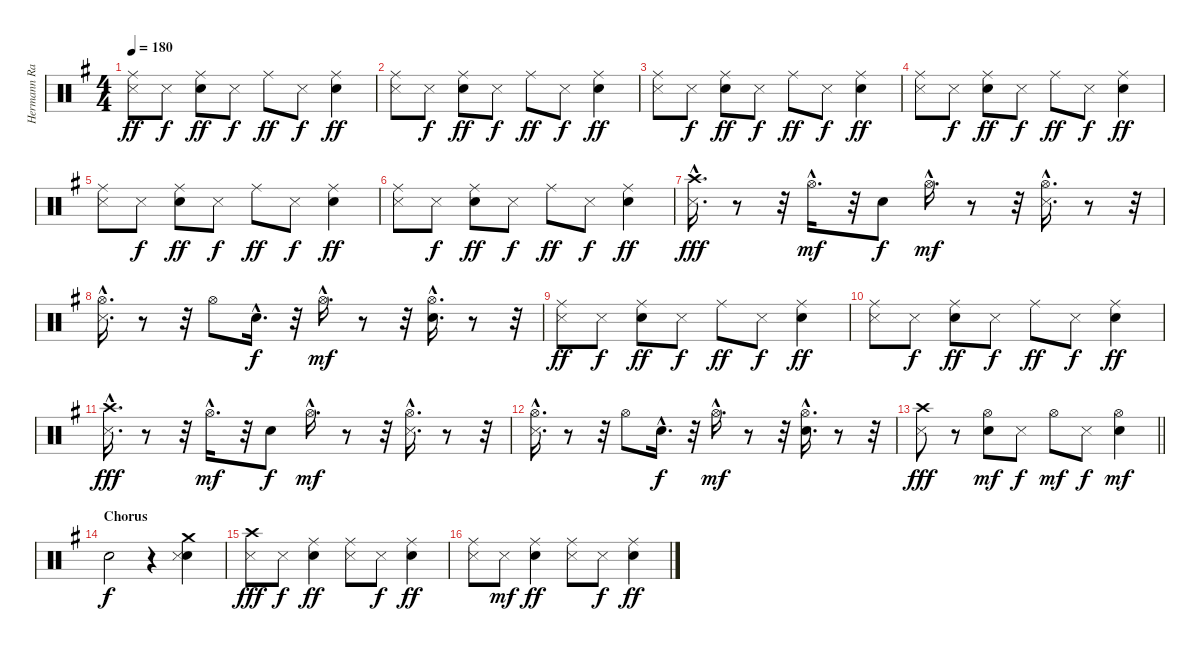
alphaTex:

\track ("Hermann Rarebel" "Hermann Ra") {instrument percussion}
\staff {score}
\articulation defaults
\ts (4 4)
\tempo 180
\clef neutral
\ks eminor
("Metronome (hit)" "Ride (middle)").8{dy ff} "Metronome (hit)".8{dy f} ("Snare (hit) 2" "Ride (middle)").8{dy ff} "Metronome (hit)".8{dy f} "Ride (middle)".8{dy ff} "Metronome (hit)".8{dy f} ("Snare (hit) 2" "Ride (middle)").4{dy ff} |
("Metronome (hit)" "Ride (middle)").8 "Metronome (hit)".8{dy f} ("Snare (hit) 2" "Ride (middle)").8{dy ff} "Metronome (hit)".8{dy f} "Ride (middle)".8{dy ff} "Metronome (hit)".8{dy f} ("Snare (hit) 2" "Ride (middle)").4{dy ff} |
("Metronome (hit)" "Ride (middle)").8 "Metronome (hit)".8{dy f} ("Snare (hit) 2" "Ride (middle)").8{dy ff} "Metronome (hit)".8{dy f} "Ride (middle)".8{dy ff} "Metronome (hit)".8{dy f} ("Snare (hit) 2" "Ride (middle)").4{dy ff} |
("Metronome (hit)" "Ride (middle)").8 "Metronome (hit)".8{dy f} ("Snare (hit) 2" "Ride (middle)").8{dy ff} "Metronome (hit)".8{dy f} "Ride (middle)".8{dy ff} "Metronome (hit)".8{dy f} ("Snare (hit) 2" "Ride (middle)").4{dy ff} |
("Metronome (hit)" "Ride (middle)").8 "Metronome (hit)".8{dy f} ("Snare (hit) 2" "Ride (middle)").8{dy ff} "Metronome (hit)".8{dy f} "Ride (middle)".8{dy ff} "Metronome (hit)".8{dy f} ("Snare (hit) 2" "Ride (middle)").4{dy ff} |
("Metronome (hit)" "Ride (middle)").8 "Metronome (hit)".8{dy f} ("Snare (hit) 2" "Ride (middle)").8{dy ff} "Metronome (hit)".8{dy f} "Ride (middle)".8{dy ff} "Metronome (hit)".8{dy f} ("Snare (hit) 2" "Ride (middle)").4{dy ff} |
("Metronome (hit)"{hac} "Crash high (hit)"{hac}).16{d dy fff} r.8 r.32 "Hi-Hat (open)"{hac}.16{d dy mf} r.32 "Snare (hit) 2".8{dy f} "Hi-Hat (open)"{hac}.16{d dy mf} r.8 r.32 ("Hi-Hat (open)"{hac} "Metronome (hit)"{hac}).16{d} r.8 r.32 |
("Hi-Hat (open)"{hac} "Metronome (hit)"{hac}).16{d} r.8 r.32 "Hi-Hat (open)".8 "Snare (hit) 2"{hac}.16{d dy f} r.32 "Hi-Hat (open)"{hac}.16{d dy mf} r.8 r.32 ("Snare (hit) 2"{hac} "Hi-Hat (open)"{hac}).16{d} r.8 r.32 |
("Metronome (hit)" "Ride (middle)").8{dy ff} "Metronome (hit)".8{dy f} ("Snare (hit) 2" "Ride (middle)").8{dy ff} "Metronome (hit)".8{dy f} "Ride (middle)".8{dy ff} "Metronome (hit)".8{dy f} ("Snare (hit) 2" "Ride (middle)").4{dy ff} |
("Metronome (hit)" "Ride (middle)").8 "Metronome (hit)".8{dy f} ("Snare (hit) 2" "Ride (middle)").8{dy ff} "Metronome (hit)".8{dy f} "Ride (middle)".8{dy ff} "Metronome (hit)".8{dy f} ("Snare (hit) 2" "Ride (middle)").4{dy ff} |
("Metronome (hit)"{hac} "Crash high (hit)"{hac}).16{d dy fff} r.8 r.32 "Hi-Hat (open)"{hac}.16{d dy mf} r.32 "Snare (hit) 2".8{dy f} "Hi-Hat (open)"{hac}.16{d dy mf} r.8 r.32 ("Hi-Hat (open)"{hac} "Metronome (hit)"{hac}).16{d} r.8 r.32 |
("Hi-Hat (open)"{hac} "Metronome (hit)"{hac}).16{d} r.8 r.32 "Hi-Hat (open)".8 "Snare (hit) 2"{hac}.16{d dy f} r.32 "Hi-Hat (open)"{hac}.16{d dy mf} r.8 r.32 ("Snare (hit) 2"{hac} "Hi-Hat (open)"{hac}).16{d} r.8 r.32 |
\barLineRight lightlight
("Crash high (hit)" "Metronome (hit)").8{dy fff} r.8 ("Hi-Hat (open)" "Snare (hit) 2").8{dy mf} "Metronome (hit)".8{dy f} "Hi-Hat (open)".8{dy mf} "Metronome (hit)".8{dy f} ("Hi-Hat (open)" "Snare (hit) 2").4{dy mf} |
\section ("" "Chorus")
"Electric Snare (hit)".2{dy f} r.4 ("Snare (hit) 2" "Metronome (hit)" "Crash medium (hit)").4 |
("Metronome (hit)" "Crash high (hit)").8{dy fff} "Metronome (hit)".8{dy f} ("Snare (hit) 2" "Ride (middle)").4{dy ff} ("Metronome (hit)" "Ride (middle)").8 "Metronome (hit)".8{dy f} ("Snare (hit) 2" "Ride (middle)").4{dy ff} |
("Metronome (hit)" "Ride (middle)").8 "Metronome (hit)".8{dy mf} ("Snare (hit) 2" "Ride (middle)").4{dy ff} ("Metronome (hit)" "Ride (middle)").8 "Metronome (hit)".8{dy f} ("Snare (hit) 2" "Ride (middle)").4{dy ff}
